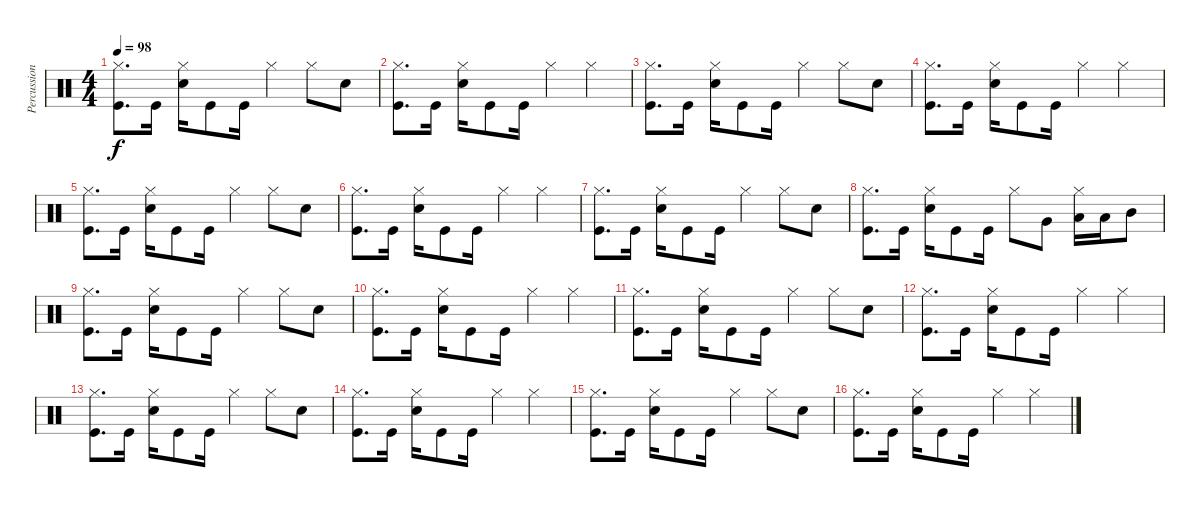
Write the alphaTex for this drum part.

\track ("Percussioni" "Percussion") {instrument percussion}
\staff {score}
\articulation defaults
\ts (4 4)
\tempo 98
\clef neutral
\ks c
("Kick (hit)" "Hi-Hat (closed)").8{d dy f} "Kick (hit)".16 ("Snare (hit) 2" "Hi-Hat (closed)").16 "Kick (hit)".8 "Kick (hit)".16 "Hi-Hat (closed)".4 "Hi-Hat (closed)".8 "Snare (hit) 2".8 |
("Kick (hit)" "Hi-Hat (closed)").8{d} "Kick (hit)".16 ("Snare (hit) 2" "Hi-Hat (closed)").16 "Kick (hit)".8 "Kick (hit)".16 "Hi-Hat (closed)".4 "Hi-Hat (closed)".4 |
("Kick (hit)" "Hi-Hat (closed)").8{d} "Kick (hit)".16 ("Snare (hit) 2" "Hi-Hat (closed)").16 "Kick (hit)".8 "Kick (hit)".16 "Hi-Hat (closed)".4 "Hi-Hat (closed)".8 "Snare (hit) 2".8 |
("Kick (hit)" "Hi-Hat (closed)").8{d} "Kick (hit)".16 ("Snare (hit) 2" "Hi-Hat (closed)").16 "Kick (hit)".8 "Kick (hit)".16 "Hi-Hat (closed)".4 "Hi-Hat (closed)".4 |
("Kick (hit)" "Hi-Hat (closed)").8{d} "Kick (hit)".16 ("Snare (hit) 2" "Hi-Hat (closed)").16 "Kick (hit)".8 "Kick (hit)".16 "Hi-Hat (closed)".4 "Hi-Hat (closed)".8 "Snare (hit) 2".8 |
("Kick (hit)" "Hi-Hat (closed)").8{d} "Kick (hit)".16 ("Snare (hit) 2" "Hi-Hat (closed)").16 "Kick (hit)".8 "Kick (hit)".16 "Hi-Hat (closed)".4 "Hi-Hat (closed)".4 |
("Kick (hit)" "Hi-Hat (closed)").8{d} "Kick (hit)".16 ("Snare (hit) 2" "Hi-Hat (closed)").16 "Kick (hit)".8 "Kick (hit)".16 "Hi-Hat (closed)".4 "Hi-Hat (closed)".8 "Snare (hit) 2".8 |
("Kick (hit)" "Hi-Hat (closed)").8{d} "Kick (hit)".16 ("Snare (hit) 2" "Hi-Hat (closed)").16 "Kick (hit)".8 "Kick (hit)".16 "Hi-Hat (closed)".8 "Very Low Tom (hit)".8 ("Low Tom (hit)" "Hi-Hat (closed)").16 "Low Tom (hit)".16 "Mid Tom (hit)".8 |
("Kick (hit)" "Hi-Hat (closed)").8{d} "Kick (hit)".16 ("Snare (hit) 2" "Hi-Hat (closed)").16 "Kick (hit)".8 "Kick (hit)".16 "Hi-Hat (closed)".4 "Hi-Hat (closed)".8 "Snare (hit) 2".8 |
("Kick (hit)" "Hi-Hat (closed)").8{d} "Kick (hit)".16 ("Snare (hit) 2" "Hi-Hat (closed)").16 "Kick (hit)".8 "Kick (hit)".16 "Hi-Hat (closed)".4 "Hi-Hat (closed)".4 |
("Kick (hit)" "Hi-Hat (closed)").8{d} "Kick (hit)".16 ("Snare (hit) 2" "Hi-Hat (closed)").16 "Kick (hit)".8 "Kick (hit)".16 "Hi-Hat (closed)".4 "Hi-Hat (closed)".8 "Snare (hit) 2".8 |
("Kick (hit)" "Hi-Hat (closed)").8{d} "Kick (hit)".16 ("Snare (hit) 2" "Hi-Hat (closed)").16 "Kick (hit)".8 "Kick (hit)".16 "Hi-Hat (closed)".4 "Hi-Hat (closed)".4 |
("Kick (hit)" "Hi-Hat (closed)").8{d} "Kick (hit)".16 ("Snare (hit) 2" "Hi-Hat (closed)").16 "Kick (hit)".8 "Kick (hit)".16 "Hi-Hat (closed)".4 "Hi-Hat (closed)".8 "Snare (hit) 2".8 |
("Kick (hit)" "Hi-Hat (closed)").8{d} "Kick (hit)".16 ("Snare (hit) 2" "Hi-Hat (closed)").16 "Kick (hit)".8 "Kick (hit)".16 "Hi-Hat (closed)".4 "Hi-Hat (closed)".4 |
("Kick (hit)" "Hi-Hat (closed)").8{d} "Kick (hit)".16 ("Snare (hit) 2" "Hi-Hat (closed)").16 "Kick (hit)".8 "Kick (hit)".16 "Hi-Hat (closed)".4 "Hi-Hat (closed)".8 "Snare (hit) 2".8 |
("Kick (hit)" "Hi-Hat (closed)").8{d} "Kick (hit)".16 ("Snare (hit) 2" "Hi-Hat (closed)").16 "Kick (hit)".8 "Kick (hit)".16 "Hi-Hat (closed)".4 "Hi-Hat (closed)".4
